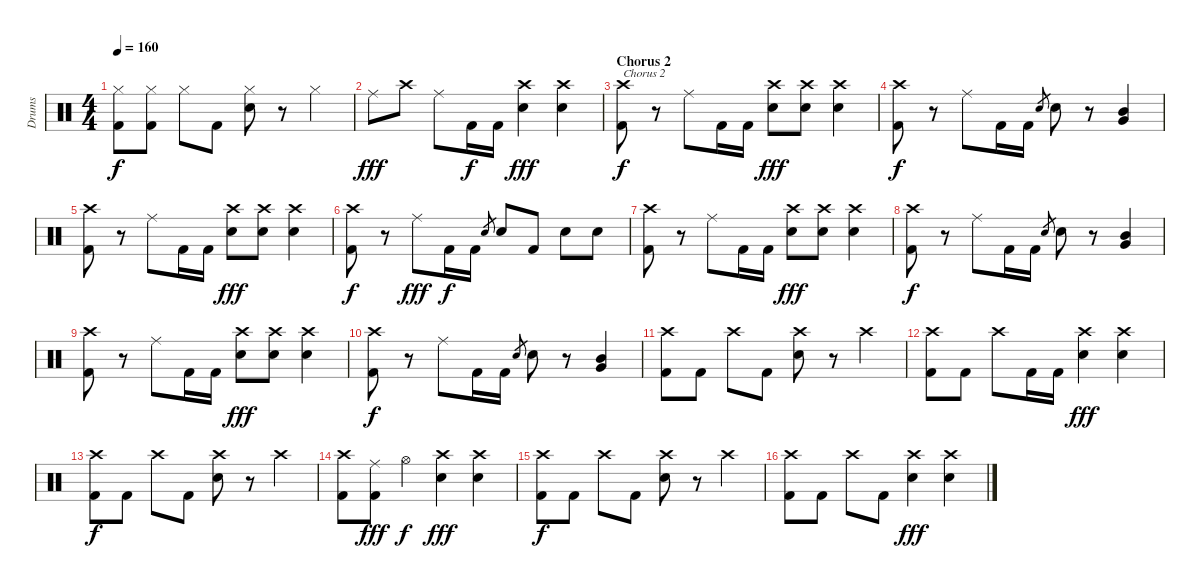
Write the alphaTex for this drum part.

\track ("Drums" "Drums") {instrument percussion}
\staff {score}
\articulation defaults
\ts (4 4)
\tempo 160
\clef neutral
\ks c
("Hi-Hat (closed)" "Kick (hit) 2").8{dy f} ("Hi-Hat (closed)" "Kick (hit) 2").8 "Hi-Hat (closed)".8 "Kick (hit) 2".8 ("Hi-Hat (closed)" "Electric Snare (hit)").8 r.8 "Hi-Hat (closed)".4 |
"Ride (middle)".8{dy fff} "Crash high (hit)".8 "Ride (middle)".8 "Kick (hit) 2".16{dy f} "Kick (hit) 2".16 ("Crash high (hit)" "Electric Snare (hit)").4{dy fff} ("Crash high (hit)" "Electric Snare (hit)").4 |
\section ("" "Chorus 2")
("Crash high (hit)" "Kick (hit) 2").8{txt "Chorus 2" dy f} r.8 "Ride (middle)".8 "Kick (hit) 2".16 "Kick (hit) 2".16 ("Crash high (hit)" "Electric Snare (hit)").8{dy fff} ("Crash high (hit)" "Electric Snare (hit)").8 ("Crash high (hit)" "Electric Snare (hit)").4 |
("Crash high (hit)" "Kick (hit) 2").8{dy f} r.8 "Ride (middle)".8 "Kick (hit) 2".16 "Kick (hit) 2".16 "Electric Snare (hit)".8{gr} "Electric Snare (hit)".8 r.8 ("Mid Tom (hit)" "Very Low Tom (hit)").4 |
("Crash high (hit)" "Kick (hit) 2").8 r.8 "Ride (middle)".8 "Kick (hit) 2".16 "Kick (hit) 2".16 ("Crash high (hit)" "Electric Snare (hit)").8{dy fff} ("Crash high (hit)" "Electric Snare (hit)").8 ("Crash high (hit)" "Electric Snare (hit)").4 |
("Crash high (hit)" "Kick (hit) 2").8{dy f} r.8 "Ride (middle)".8{dy fff} "Kick (hit) 2".16{dy f} "Kick (hit) 2".16 "Electric Snare (hit)".8{gr} "Electric Snare (hit)".8 "Kick (hit) 2".8 "Electric Snare (hit)".8 "Electric Snare (hit)".8 |
("Crash high (hit)" "Kick (hit) 2").8 r.8 "Ride (middle)".8 "Kick (hit) 2".16 "Kick (hit) 2".16 ("Crash high (hit)" "Electric Snare (hit)").8{dy fff} ("Crash high (hit)" "Electric Snare (hit)").8 ("Crash high (hit)" "Electric Snare (hit)").4 |
("Crash high (hit)" "Kick (hit) 2").8{dy f} r.8 "Ride (middle)".8 "Kick (hit) 2".16 "Kick (hit) 2".16 "Electric Snare (hit)".8{gr} "Electric Snare (hit)".8 r.8 ("Mid Tom (hit)" "Very Low Tom (hit)").4 |
("Crash high (hit)" "Kick (hit) 2").8 r.8 "Ride (middle)".8 "Kick (hit) 2".16 "Kick (hit) 2".16 ("Crash high (hit)" "Electric Snare (hit)").8{dy fff} ("Crash high (hit)" "Electric Snare (hit)").8 ("Crash high (hit)" "Electric Snare (hit)").4 |
("Crash high (hit)" "Kick (hit) 2").8{dy f} r.8 "Ride (middle)".8 "Kick (hit) 2".16 "Kick (hit) 2".16 "Electric Snare (hit)".8{gr} "Electric Snare (hit)".8 r.8 ("Mid Tom (hit)" "Very Low Tom (hit)").4 |
("Crash high (hit)" "Kick (hit) 2").8 "Kick (hit) 2".8 "Crash high (hit)".8 "Kick (hit) 2".8 ("Crash high (hit)" "Electric Snare (hit)").8 r.8 "Crash high (hit)".4 |
("Crash high (hit)" "Kick (hit) 2").8 "Kick (hit) 2".8 "Crash high (hit)".8 "Kick (hit) 2".16 "Kick (hit) 2".16 ("Crash high (hit)" "Electric Snare (hit)").4{dy fff} ("Crash high (hit)" "Electric Snare (hit)").4 |
("Crash high (hit)" "Kick (hit) 2").8{dy f} "Kick (hit) 2".8 "Crash high (hit)".8 "Kick (hit) 2".8 ("Crash high (hit)" "Electric Snare (hit)").8 r.8 "Crash high (hit)".4 |
("Crash high (hit)" "Kick (hit) 2").8 ("Ride (middle)" "Kick (hit) 2").8{dy fff} "Hi-Hat (open)".4{dy f} ("Crash high (hit)" "Electric Snare (hit)").4{dy fff} ("Crash high (hit)" "Electric Snare (hit)").4 |
("Crash high (hit)" "Kick (hit) 2").8{dy f} "Kick (hit) 2".8 "Crash high (hit)".8 "Kick (hit) 2".8 ("Crash high (hit)" "Electric Snare (hit)").8 r.8 "Crash high (hit)".4 |
("Crash high (hit)" "Kick (hit) 2").8 "Kick (hit) 2".8 "Crash high (hit)".8 "Kick (hit) 2".8 ("Crash high (hit)" "Electric Snare (hit)").4{dy fff} ("Crash high (hit)" "Electric Snare (hit)").4
